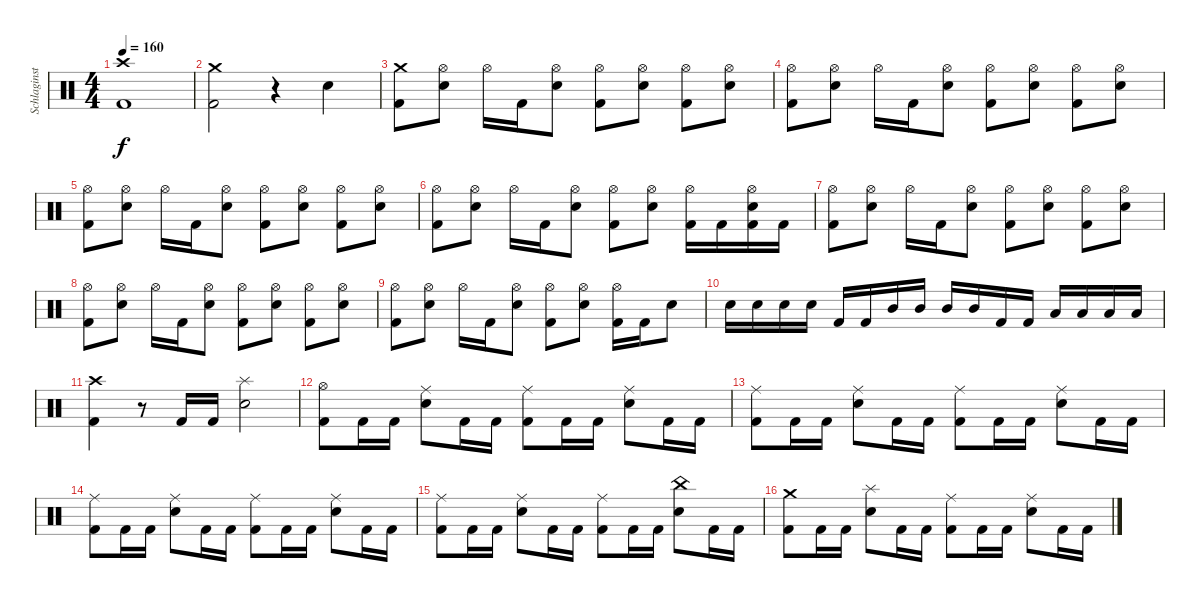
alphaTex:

\track ("Schlaginstrumente - Auswahl" "Schlaginst") {instrument percussion}
\staff {score}
\articulation defaults
\ts (4 4)
\tempo 160
\clef neutral
\ks c
("Crash high (hit)" "Kick (hit) 2").1{dy f} |
("Crash medium (hit)" "Kick (hit) 2").2 r.4 "Snare (hit) 2".4 |
("Crash medium (hit)" "Kick (hit) 2").8 ("Hi-Hat (open)" "Snare (hit) 2").8 "Hi-Hat (open)".16 "Kick (hit) 2".16 ("Hi-Hat (open)" "Snare (hit) 2").8 ("Hi-Hat (open)" "Kick (hit) 2").8 ("Hi-Hat (open)" "Snare (hit) 2").8 ("Hi-Hat (open)" "Kick (hit) 2").8 ("Hi-Hat (open)" "Snare (hit) 2").8 |
("Hi-Hat (open)" "Kick (hit) 2").8 ("Hi-Hat (open)" "Snare (hit) 2").8 "Hi-Hat (open)".16 "Kick (hit) 2".16 ("Hi-Hat (open)" "Snare (hit) 2").8 ("Hi-Hat (open)" "Kick (hit) 2").8 ("Hi-Hat (open)" "Snare (hit) 2").8 ("Hi-Hat (open)" "Kick (hit) 2").8 ("Hi-Hat (open)" "Snare (hit) 2").8 |
("Hi-Hat (open)" "Kick (hit) 2").8 ("Hi-Hat (open)" "Snare (hit) 2").8 "Hi-Hat (open)".16 "Kick (hit) 2".16 ("Hi-Hat (open)" "Snare (hit) 2").8 ("Hi-Hat (open)" "Kick (hit) 2").8 ("Hi-Hat (open)" "Snare (hit) 2").8 ("Hi-Hat (open)" "Kick (hit) 2").8 ("Hi-Hat (open)" "Snare (hit) 2").8 |
("Hi-Hat (open)" "Kick (hit) 2").8 ("Hi-Hat (open)" "Snare (hit) 2").8 "Hi-Hat (open)".16 "Kick (hit) 2".16 ("Hi-Hat (open)" "Snare (hit) 2").8 ("Hi-Hat (open)" "Kick (hit) 2").8 ("Hi-Hat (open)" "Snare (hit) 2").8 ("Hi-Hat (open)" "Kick (hit) 2").16 "Kick (hit) 2".16 ("Hi-Hat (open)" "Snare (hit) 2" "Kick (hit) 2").16 "Kick (hit) 2".16 |
("Hi-Hat (open)" "Kick (hit) 2").8 ("Hi-Hat (open)" "Snare (hit) 2").8 "Hi-Hat (open)".16 "Kick (hit) 2".16 ("Hi-Hat (open)" "Snare (hit) 2").8 ("Hi-Hat (open)" "Kick (hit) 2").8 ("Hi-Hat (open)" "Snare (hit) 2").8 ("Hi-Hat (open)" "Kick (hit) 2").8 ("Hi-Hat (open)" "Snare (hit) 2").8 |
("Hi-Hat (open)" "Kick (hit) 2").8 ("Hi-Hat (open)" "Snare (hit) 2").8 "Hi-Hat (open)".16 "Kick (hit) 2".16 ("Hi-Hat (open)" "Snare (hit) 2").8 ("Hi-Hat (open)" "Kick (hit) 2").8 ("Hi-Hat (open)" "Snare (hit) 2").8 ("Hi-Hat (open)" "Kick (hit) 2").8 ("Hi-Hat (open)" "Snare (hit) 2").8 |
("Hi-Hat (open)" "Kick (hit) 2").8 ("Hi-Hat (open)" "Snare (hit) 2").8 "Hi-Hat (open)".16 "Kick (hit) 2".16 ("Hi-Hat (open)" "Snare (hit) 2").8 ("Hi-Hat (open)" "Kick (hit) 2").8 ("Hi-Hat (open)" "Snare (hit) 2").8 ("Hi-Hat (open)" "Kick (hit) 2").16 "Kick (hit) 2".16 "Snare (hit) 2".8 |
"Snare (hit) 2".16 "Snare (hit) 2".16 "Snare (hit) 2".16 "Snare (hit) 2".16 "Kick (hit) 2".16 "Kick (hit) 2".16 "Mid Tom (hit)".16 "Mid Tom (hit)".16 "Mid Tom (hit)".16 "Mid Tom (hit)".16 "Kick (hit) 2".16 "Kick (hit) 2".16 "Low Tom (hit)".16 "Low Tom (hit)".16 "Low Tom (hit)".16 "Low Tom (hit)".16 |
("Crash high (hit)" "Kick (hit) 2").4 r.8 "Kick (hit) 2".16 "Kick (hit) 2".16 ("Splash (hit)" "Snare (hit) 2").2 |
("Hi-Hat (open)" "Kick (hit) 2").8 "Kick (hit) 2".16 "Kick (hit) 2".16 ("Ride (middle)" "Snare (hit) 2").8 "Kick (hit) 2".16 "Kick (hit) 2".16 ("Ride (middle)" "Kick (hit) 2").8 "Kick (hit) 2".16 "Kick (hit) 2".16 ("Ride (middle)" "Snare (hit) 2").8 "Kick (hit) 2".16 "Kick (hit) 2".16 |
("Ride (middle)" "Kick (hit) 2").8 "Kick (hit) 2".16 "Kick (hit) 2".16 ("Ride (middle)" "Snare (hit) 2").8 "Kick (hit) 2".16 "Kick (hit) 2".16 ("Ride (middle)" "Kick (hit) 2").8 "Kick (hit) 2".16 "Kick (hit) 2".16 ("Ride (middle)" "Snare (hit) 2").8 "Kick (hit) 2".16 "Kick (hit) 2".16 |
("Ride (middle)" "Kick (hit) 2").8 "Kick (hit) 2".16 "Kick (hit) 2".16 ("Ride (middle)" "Snare (hit) 2").8 "Kick (hit) 2".16 "Kick (hit) 2".16 ("Ride (middle)" "Kick (hit) 2").8 "Kick (hit) 2".16 "Kick (hit) 2".16 ("Ride (middle)" "Snare (hit) 2").8 "Kick (hit) 2".16 "Kick (hit) 2".16 |
("Ride (middle)" "Kick (hit) 2").8 "Kick (hit) 2".16 "Kick (hit) 2".16 ("Ride (middle)" "Snare (hit) 2").8 "Kick (hit) 2".16 "Kick (hit) 2".16 ("Ride (middle)" "Kick (hit) 2").8 "Kick (hit) 2".16 "Kick (hit) 2".16 ("China (hit)" "Snare (hit) 2").8 "Kick (hit) 2".16 "Kick (hit) 2".16 |
("Crash medium (hit)" "Kick (hit) 2").8 "Kick (hit) 2".16 "Kick (hit) 2".16 ("Splash (hit)" "Snare (hit) 2").8 "Kick (hit) 2".16 "Kick (hit) 2".16 ("Ride (middle)" "Kick (hit) 2").8 "Kick (hit) 2".16 "Kick (hit) 2".16 ("Ride (middle)" "Snare (hit) 2").8 "Kick (hit) 2".16 "Kick (hit) 2".16
